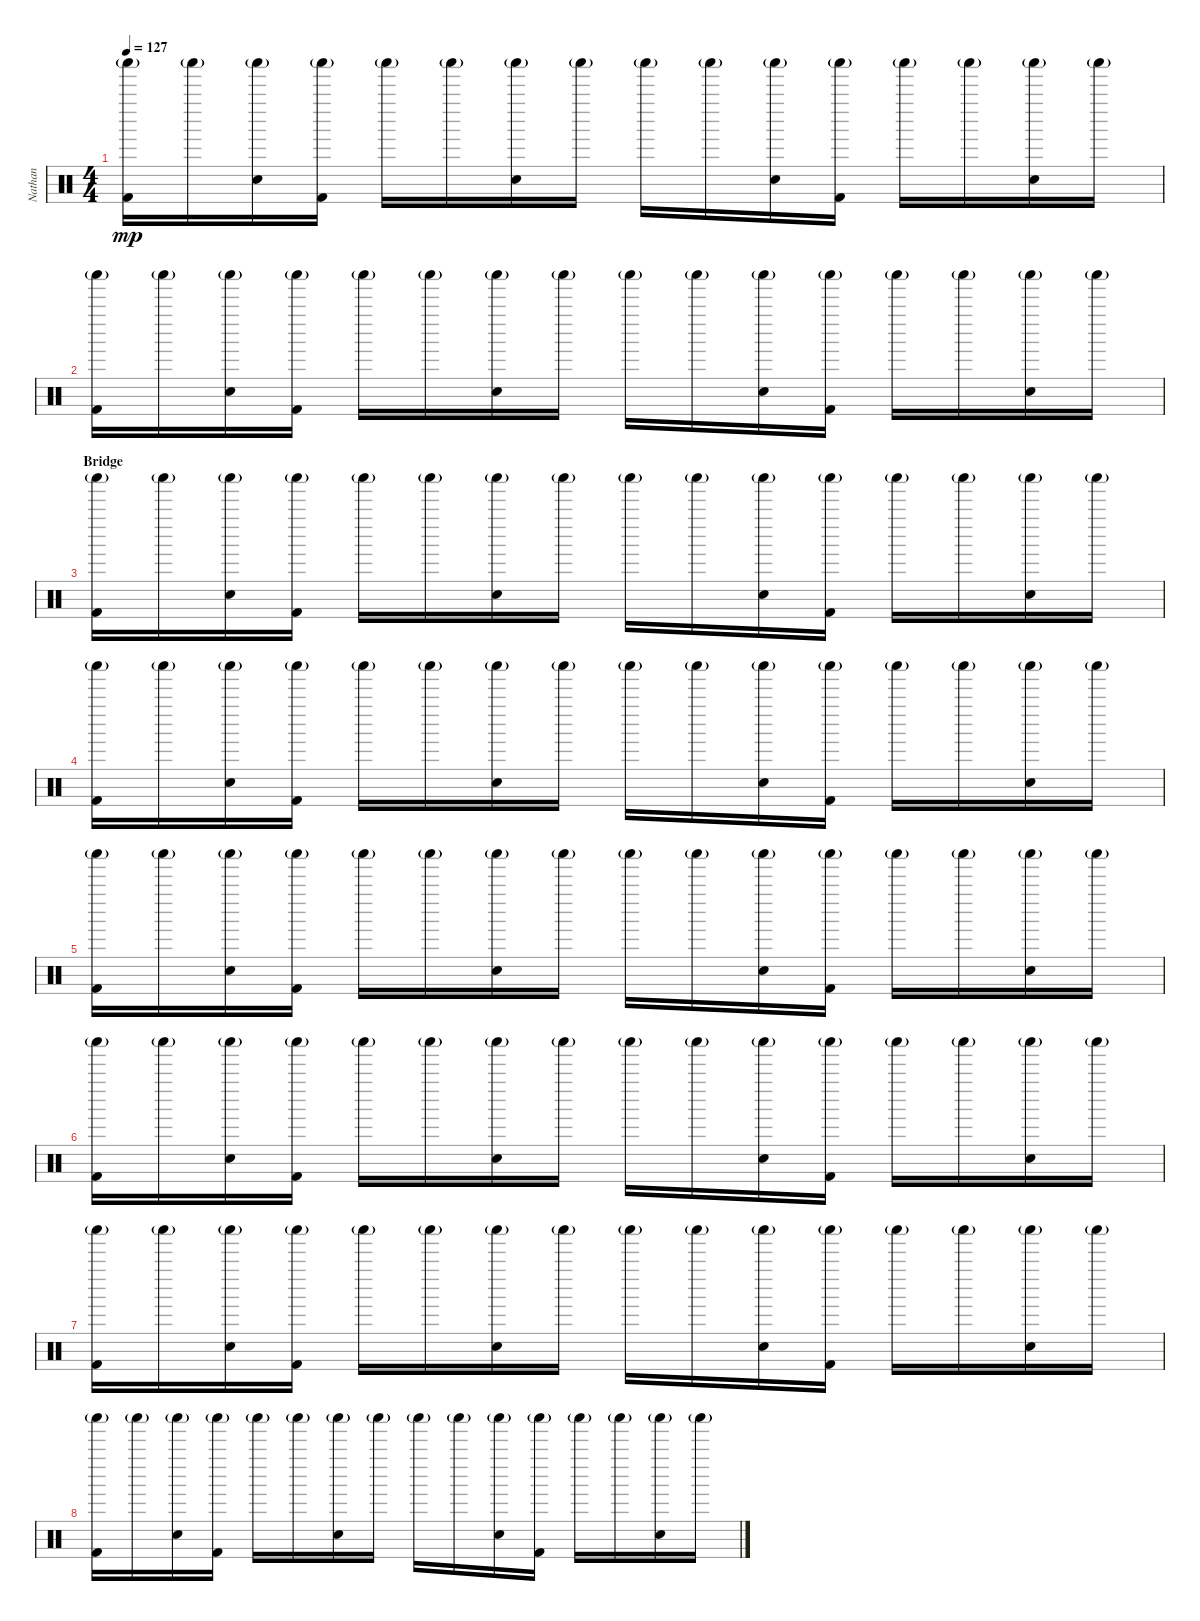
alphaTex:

\track ("Nathan" "Nathan") {instrument percussion}
\staff {score}
\articulation defaults
\ts (4 4)
\tempo 127
\clef neutral
\ks c
("Shaker (hit)"{g} "Kick (hit) 2").16{dy mp} "Shaker (hit)"{g}.16 ("Shaker (hit)"{g} "Electric Snare (hit)").16 ("Shaker (hit)"{g} "Kick (hit) 2").16 "Shaker (hit)"{g}.16 "Shaker (hit)"{g}.16 ("Shaker (hit)"{g} "Electric Snare (hit)").16 "Shaker (hit)"{g}.16 "Shaker (hit)"{g}.16 "Shaker (hit)"{g}.16 ("Shaker (hit)"{g} "Electric Snare (hit)").16 ("Shaker (hit)"{g} "Kick (hit) 2").16 "Shaker (hit)"{g}.16 "Shaker (hit)"{g}.16 ("Shaker (hit)"{g} "Electric Snare (hit)").16 "Shaker (hit)"{g}.16 |
("Shaker (hit)"{g} "Kick (hit) 2").16 "Shaker (hit)"{g}.16 ("Shaker (hit)"{g} "Electric Snare (hit)").16 ("Shaker (hit)"{g} "Kick (hit) 2").16 "Shaker (hit)"{g}.16 "Shaker (hit)"{g}.16 ("Shaker (hit)"{g} "Electric Snare (hit)").16 "Shaker (hit)"{g}.16 "Shaker (hit)"{g}.16 "Shaker (hit)"{g}.16 ("Shaker (hit)"{g} "Electric Snare (hit)").16 ("Shaker (hit)"{g} "Kick (hit) 2").16 "Shaker (hit)"{g}.16 "Shaker (hit)"{g}.16 ("Shaker (hit)"{g} "Electric Snare (hit)").16 "Shaker (hit)"{g}.16 |
\section ("" "Bridge")
("Shaker (hit)"{g} "Kick (hit) 2").16 "Shaker (hit)"{g}.16 ("Shaker (hit)"{g} "Electric Snare (hit)").16 ("Shaker (hit)"{g} "Kick (hit) 2").16 "Shaker (hit)"{g}.16 "Shaker (hit)"{g}.16 ("Shaker (hit)"{g} "Electric Snare (hit)").16 "Shaker (hit)"{g}.16 "Shaker (hit)"{g}.16 "Shaker (hit)"{g}.16 ("Shaker (hit)"{g} "Electric Snare (hit)").16 ("Shaker (hit)"{g} "Kick (hit) 2").16 "Shaker (hit)"{g}.16 "Shaker (hit)"{g}.16 ("Shaker (hit)"{g} "Electric Snare (hit)").16 "Shaker (hit)"{g}.16 |
("Shaker (hit)"{g} "Kick (hit) 2").16 "Shaker (hit)"{g}.16 ("Shaker (hit)"{g} "Electric Snare (hit)").16 ("Shaker (hit)"{g} "Kick (hit) 2").16 "Shaker (hit)"{g}.16 "Shaker (hit)"{g}.16 ("Shaker (hit)"{g} "Electric Snare (hit)").16 "Shaker (hit)"{g}.16 "Shaker (hit)"{g}.16 "Shaker (hit)"{g}.16 ("Shaker (hit)"{g} "Electric Snare (hit)").16 ("Shaker (hit)"{g} "Kick (hit) 2").16 "Shaker (hit)"{g}.16 "Shaker (hit)"{g}.16 ("Shaker (hit)"{g} "Electric Snare (hit)").16 "Shaker (hit)"{g}.16 |
("Shaker (hit)"{g} "Kick (hit) 2").16 "Shaker (hit)"{g}.16 ("Shaker (hit)"{g} "Electric Snare (hit)").16 ("Shaker (hit)"{g} "Kick (hit) 2").16 "Shaker (hit)"{g}.16 "Shaker (hit)"{g}.16 ("Shaker (hit)"{g} "Electric Snare (hit)").16 "Shaker (hit)"{g}.16 "Shaker (hit)"{g}.16 "Shaker (hit)"{g}.16 ("Shaker (hit)"{g} "Electric Snare (hit)").16 ("Shaker (hit)"{g} "Kick (hit) 2").16 "Shaker (hit)"{g}.16 "Shaker (hit)"{g}.16 ("Shaker (hit)"{g} "Electric Snare (hit)").16 "Shaker (hit)"{g}.16 |
("Shaker (hit)"{g} "Kick (hit) 2").16 "Shaker (hit)"{g}.16 ("Shaker (hit)"{g} "Electric Snare (hit)").16 ("Shaker (hit)"{g} "Kick (hit) 2").16 "Shaker (hit)"{g}.16 "Shaker (hit)"{g}.16 ("Shaker (hit)"{g} "Electric Snare (hit)").16 "Shaker (hit)"{g}.16 "Shaker (hit)"{g}.16 "Shaker (hit)"{g}.16 ("Shaker (hit)"{g} "Electric Snare (hit)").16 ("Shaker (hit)"{g} "Kick (hit) 2").16 "Shaker (hit)"{g}.16 "Shaker (hit)"{g}.16 ("Shaker (hit)"{g} "Electric Snare (hit)").16 "Shaker (hit)"{g}.16 |
("Shaker (hit)"{g} "Kick (hit) 2").16 "Shaker (hit)"{g}.16 ("Shaker (hit)"{g} "Electric Snare (hit)").16 ("Shaker (hit)"{g} "Kick (hit) 2").16 "Shaker (hit)"{g}.16 "Shaker (hit)"{g}.16 ("Shaker (hit)"{g} "Electric Snare (hit)").16 "Shaker (hit)"{g}.16 "Shaker (hit)"{g}.16 "Shaker (hit)"{g}.16 ("Shaker (hit)"{g} "Electric Snare (hit)").16 ("Shaker (hit)"{g} "Kick (hit) 2").16 "Shaker (hit)"{g}.16 "Shaker (hit)"{g}.16 ("Shaker (hit)"{g} "Electric Snare (hit)").16 "Shaker (hit)"{g}.16 |
("Shaker (hit)"{g} "Kick (hit) 2").16 "Shaker (hit)"{g}.16 ("Shaker (hit)"{g} "Electric Snare (hit)").16 ("Shaker (hit)"{g} "Kick (hit) 2").16 "Shaker (hit)"{g}.16 "Shaker (hit)"{g}.16 ("Shaker (hit)"{g} "Electric Snare (hit)").16 "Shaker (hit)"{g}.16 "Shaker (hit)"{g}.16 "Shaker (hit)"{g}.16 ("Shaker (hit)"{g} "Electric Snare (hit)").16 ("Shaker (hit)"{g} "Kick (hit) 2").16 "Shaker (hit)"{g}.16 "Shaker (hit)"{g}.16 ("Shaker (hit)"{g} "Electric Snare (hit)").16 "Shaker (hit)"{g}.16
